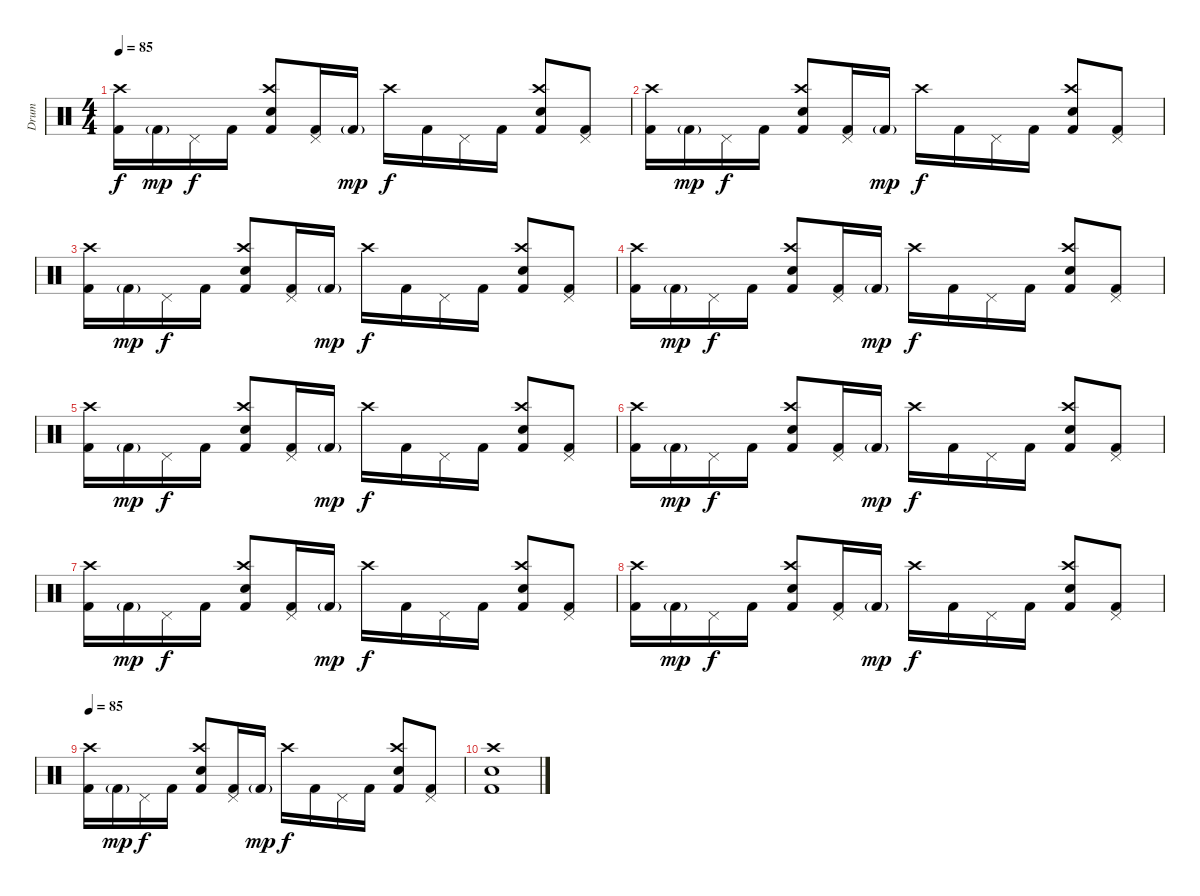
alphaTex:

\track ("Drum" "Drum") {instrument percussion}
\staff {score}
\articulation defaults
\ts (4 4)
\tempo 85
\clef neutral
\ks c
("Kick (hit) 2" "Crash high (hit)").16{dy f} "Kick (hit) 2"{g}.16{dy mp} "Pedal Hi-Hat (hit)".16{dy f} "Kick (hit) 2".16 ("Kick (hit) 2" "Snare (hit) 2" "Crash high (hit)").8 ("Kick (hit) 2" "Pedal Hi-Hat (hit)").16 "Kick (hit) 2"{g}.16{dy mp} "Crash high (hit)".16{dy f} "Kick (hit) 2".16 "Pedal Hi-Hat (hit)".16 "Kick (hit) 2".16 ("Kick (hit) 2" "Snare (hit) 2" "Crash high (hit)").8 ("Kick (hit) 2" "Pedal Hi-Hat (hit)").8 |
("Kick (hit) 2" "Crash high (hit)").16 "Kick (hit) 2"{g}.16{dy mp} "Pedal Hi-Hat (hit)".16{dy f} "Kick (hit) 2".16 ("Kick (hit) 2" "Snare (hit) 2" "Crash high (hit)").8 ("Kick (hit) 2" "Pedal Hi-Hat (hit)").16 "Kick (hit) 2"{g}.16{dy mp} "Crash high (hit)".16{dy f} "Kick (hit) 2".16 "Pedal Hi-Hat (hit)".16 "Kick (hit) 2".16 ("Kick (hit) 2" "Snare (hit) 2" "Crash high (hit)").8 ("Kick (hit) 2" "Pedal Hi-Hat (hit)").8 |
("Kick (hit) 2" "Crash high (hit)").16 "Kick (hit) 2"{g}.16{dy mp} "Pedal Hi-Hat (hit)".16{dy f} "Kick (hit) 2".16 ("Kick (hit) 2" "Snare (hit) 2" "Crash high (hit)").8 ("Kick (hit) 2" "Pedal Hi-Hat (hit)").16 "Kick (hit) 2"{g}.16{dy mp} "Crash high (hit)".16{dy f} "Kick (hit) 2".16 "Pedal Hi-Hat (hit)".16 "Kick (hit) 2".16 ("Kick (hit) 2" "Snare (hit) 2" "Crash high (hit)").8 ("Kick (hit) 2" "Pedal Hi-Hat (hit)").8 |
("Kick (hit) 2" "Crash high (hit)").16 "Kick (hit) 2"{g}.16{dy mp} "Pedal Hi-Hat (hit)".16{dy f} "Kick (hit) 2".16 ("Kick (hit) 2" "Snare (hit) 2" "Crash high (hit)").8 ("Kick (hit) 2" "Pedal Hi-Hat (hit)").16 "Kick (hit) 2"{g}.16{dy mp} "Crash high (hit)".16{dy f} "Kick (hit) 2".16 "Pedal Hi-Hat (hit)".16 "Kick (hit) 2".16 ("Kick (hit) 2" "Snare (hit) 2" "Crash high (hit)").8 ("Kick (hit) 2" "Pedal Hi-Hat (hit)").8 |
("Kick (hit) 2" "Crash high (hit)").16 "Kick (hit) 2"{g}.16{dy mp} "Pedal Hi-Hat (hit)".16{dy f} "Kick (hit) 2".16 ("Kick (hit) 2" "Snare (hit) 2" "Crash high (hit)").8 ("Kick (hit) 2" "Pedal Hi-Hat (hit)").16 "Kick (hit) 2"{g}.16{dy mp} "Crash high (hit)".16{dy f} "Kick (hit) 2".16 "Pedal Hi-Hat (hit)".16 "Kick (hit) 2".16 ("Kick (hit) 2" "Snare (hit) 2" "Crash high (hit)").8 ("Kick (hit) 2" "Pedal Hi-Hat (hit)").8 |
("Kick (hit) 2" "Crash high (hit)").16 "Kick (hit) 2"{g}.16{dy mp} "Pedal Hi-Hat (hit)".16{dy f} "Kick (hit) 2".16 ("Kick (hit) 2" "Snare (hit) 2" "Crash high (hit)").8 ("Kick (hit) 2" "Pedal Hi-Hat (hit)").16 "Kick (hit) 2"{g}.16{dy mp} "Crash high (hit)".16{dy f} "Kick (hit) 2".16 "Pedal Hi-Hat (hit)".16 "Kick (hit) 2".16 ("Kick (hit) 2" "Snare (hit) 2" "Crash high (hit)").8 ("Kick (hit) 2" "Pedal Hi-Hat (hit)").8 |
("Kick (hit) 2" "Crash high (hit)").16 "Kick (hit) 2"{g}.16{dy mp} "Pedal Hi-Hat (hit)".16{dy f} "Kick (hit) 2".16 ("Kick (hit) 2" "Snare (hit) 2" "Crash high (hit)").8 ("Kick (hit) 2" "Pedal Hi-Hat (hit)").16 "Kick (hit) 2"{g}.16{dy mp} "Crash high (hit)".16{dy f} "Kick (hit) 2".16 "Pedal Hi-Hat (hit)".16 "Kick (hit) 2".16 ("Kick (hit) 2" "Snare (hit) 2" "Crash high (hit)").8 ("Kick (hit) 2" "Pedal Hi-Hat (hit)").8 |
("Kick (hit) 2" "Crash high (hit)").16 "Kick (hit) 2"{g}.16{dy mp} "Pedal Hi-Hat (hit)".16{dy f} "Kick (hit) 2".16 ("Kick (hit) 2" "Snare (hit) 2" "Crash high (hit)").8 ("Kick (hit) 2" "Pedal Hi-Hat (hit)").16 "Kick (hit) 2"{g}.16{dy mp} "Crash high (hit)".16{dy f} "Kick (hit) 2".16 "Pedal Hi-Hat (hit)".16 "Kick (hit) 2".16 ("Kick (hit) 2" "Snare (hit) 2" "Crash high (hit)").8 ("Kick (hit) 2" "Pedal Hi-Hat (hit)").8 |
\tempo 85
("Kick (hit) 2" "Crash high (hit)").16 "Kick (hit) 2"{g}.16{dy mp} "Pedal Hi-Hat (hit)".16{dy f} "Kick (hit) 2".16 ("Kick (hit) 2" "Snare (hit) 2" "Crash high (hit)").8 ("Kick (hit) 2" "Pedal Hi-Hat (hit)").16 "Kick (hit) 2"{g}.16{dy mp} "Crash high (hit)".16{dy f} "Kick (hit) 2".16 "Pedal Hi-Hat (hit)".16 "Kick (hit) 2".16 ("Kick (hit) 2" "Snare (hit) 2" "Crash high (hit)").8 ("Kick (hit) 2" "Pedal Hi-Hat (hit)").8 |
("Kick (hit) 2" "Snare (hit) 2" "Crash high (hit)").1
